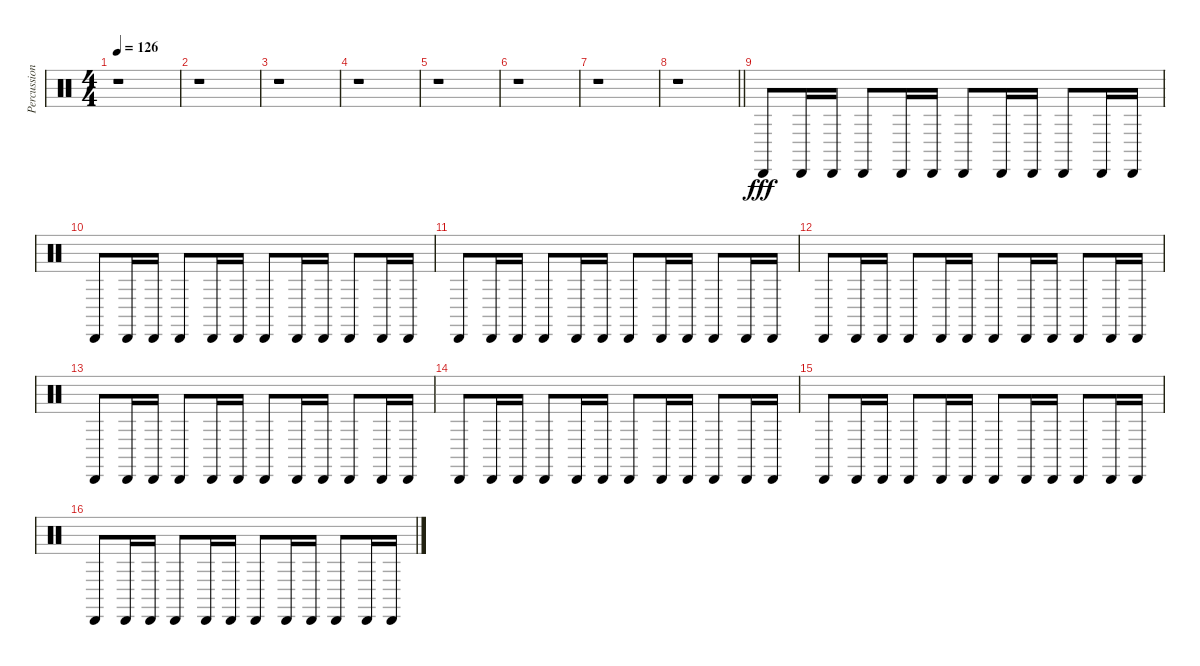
\track ("Percussions" "Percussion") {instrument percussion}
\staff {score}
\articulation defaults
\ts (4 4)
\tempo 126
\clef neutral
\ks c
r.1{dy f} |
r.1 |
r.1 |
r.1 |
r.1 |
r.1 |
r.1 |
\barLineRight lightlight
r.1 |
"Cabasa (hit)".8{dy fff} "Cabasa (hit)".16 "Cabasa (hit)".16 "Cabasa (hit)".8 "Cabasa (hit)".16 "Cabasa (hit)".16 "Cabasa (hit)".8 "Cabasa (hit)".16 "Cabasa (hit)".16 "Cabasa (hit)".8 "Cabasa (hit)".16 "Cabasa (hit)".16 |
"Cabasa (hit)".8 "Cabasa (hit)".16 "Cabasa (hit)".16 "Cabasa (hit)".8 "Cabasa (hit)".16 "Cabasa (hit)".16 "Cabasa (hit)".8 "Cabasa (hit)".16 "Cabasa (hit)".16 "Cabasa (hit)".8 "Cabasa (hit)".16 "Cabasa (hit)".16 |
"Cabasa (hit)".8 "Cabasa (hit)".16 "Cabasa (hit)".16 "Cabasa (hit)".8 "Cabasa (hit)".16 "Cabasa (hit)".16 "Cabasa (hit)".8 "Cabasa (hit)".16 "Cabasa (hit)".16 "Cabasa (hit)".8 "Cabasa (hit)".16 "Cabasa (hit)".16 |
"Cabasa (hit)".8 "Cabasa (hit)".16 "Cabasa (hit)".16 "Cabasa (hit)".8 "Cabasa (hit)".16 "Cabasa (hit)".16 "Cabasa (hit)".8 "Cabasa (hit)".16 "Cabasa (hit)".16 "Cabasa (hit)".8 "Cabasa (hit)".16 "Cabasa (hit)".16 |
"Cabasa (hit)".8 "Cabasa (hit)".16 "Cabasa (hit)".16 "Cabasa (hit)".8 "Cabasa (hit)".16 "Cabasa (hit)".16 "Cabasa (hit)".8 "Cabasa (hit)".16 "Cabasa (hit)".16 "Cabasa (hit)".8 "Cabasa (hit)".16 "Cabasa (hit)".16 |
"Cabasa (hit)".8 "Cabasa (hit)".16 "Cabasa (hit)".16 "Cabasa (hit)".8 "Cabasa (hit)".16 "Cabasa (hit)".16 "Cabasa (hit)".8 "Cabasa (hit)".16 "Cabasa (hit)".16 "Cabasa (hit)".8 "Cabasa (hit)".16 "Cabasa (hit)".16 |
"Cabasa (hit)".8 "Cabasa (hit)".16 "Cabasa (hit)".16 "Cabasa (hit)".8 "Cabasa (hit)".16 "Cabasa (hit)".16 "Cabasa (hit)".8 "Cabasa (hit)".16 "Cabasa (hit)".16 "Cabasa (hit)".8 "Cabasa (hit)".16 "Cabasa (hit)".16 |
"Cabasa (hit)".8 "Cabasa (hit)".16 "Cabasa (hit)".16 "Cabasa (hit)".8 "Cabasa (hit)".16 "Cabasa (hit)".16 "Cabasa (hit)".8 "Cabasa (hit)".16 "Cabasa (hit)".16 "Cabasa (hit)".8 "Cabasa (hit)".16 "Cabasa (hit)".16
